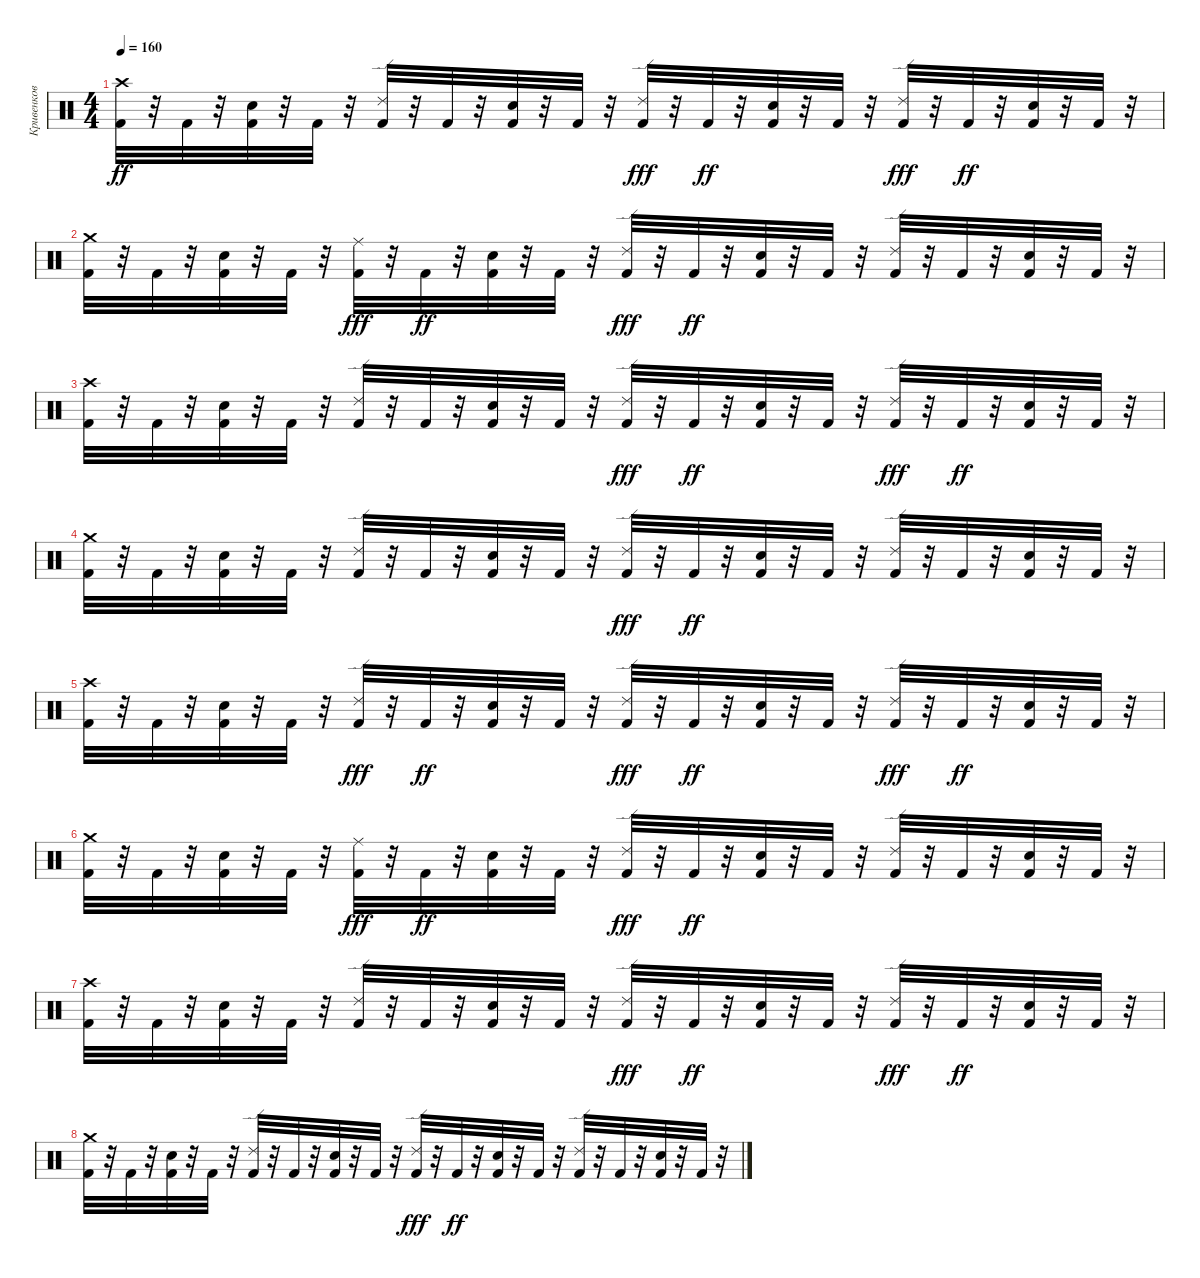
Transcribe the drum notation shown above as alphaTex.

\track ("Кривенков" "Кривенков") {instrument percussion}
\staff {score}
\articulation defaults
\ts (4 4)
\tempo 160
\clef neutral
\ks c
("Kick (hit) 2" "Crash high (hit)").32{dy ff} r.32 "Kick (hit) 2".32 r.32 ("Kick (hit) 2" "Electric Snare (hit)").32 r.32 "Kick (hit) 2".32 r.32 ("Ride (edge) 2" "Kick (hit) 2").32 r.32 "Kick (hit) 2".32 r.32 ("Electric Snare (hit)" "Kick (hit) 2").32 r.32 "Kick (hit) 2".32 r.32 ("Kick (hit) 2" "Ride (edge) 2").32{dy fff} r.32 "Kick (hit) 2".32{dy ff} r.32 ("Kick (hit) 2" "Electric Snare (hit)").32 r.32 "Kick (hit) 2".32 r.32 ("Kick (hit) 2" "Ride (edge) 2").32{dy fff} r.32 "Kick (hit) 2".32{dy ff} r.32 ("Electric Snare (hit)" "Kick (hit) 2").32 r.32 "Kick (hit) 2".32 r.32 |
("Crash medium (hit)" "Kick (hit) 2").32 r.32 "Kick (hit) 2".32 r.32 ("Kick (hit) 2" "Electric Snare (hit)").32 r.32 "Kick (hit) 2".32 r.32 ("Kick (hit) 2" "Ride (middle)").32{dy fff} r.32 "Kick (hit) 2".32{dy ff} r.32 ("Electric Snare (hit)" "Kick (hit) 2").32 r.32 "Kick (hit) 2".32 r.32 ("Kick (hit) 2" "Ride (edge) 2").32{dy fff} r.32 "Kick (hit) 2".32{dy ff} r.32 ("Electric Snare (hit)" "Kick (hit) 2").32 r.32 "Kick (hit) 2".32 r.32 ("Ride (edge) 2" "Kick (hit) 2").32 r.32 "Kick (hit) 2".32 r.32 ("Kick (hit) 2" "Electric Snare (hit)").32 r.32 "Kick (hit) 2".32 r.32 |
("Crash high (hit)" "Kick (hit) 2").32 r.32 "Kick (hit) 2".32 r.32 ("Electric Snare (hit)" "Kick (hit) 2").32 r.32 "Kick (hit) 2".32 r.32 ("Ride (edge) 2" "Kick (hit) 2").32 r.32 "Kick (hit) 2".32 r.32 ("Kick (hit) 2" "Electric Snare (hit)").32 r.32 "Kick (hit) 2".32 r.32 ("Kick (hit) 2" "Ride (edge) 2").32{dy fff} r.32 "Kick (hit) 2".32{dy ff} r.32 ("Kick (hit) 2" "Electric Snare (hit)").32 r.32 "Kick (hit) 2".32 r.32 ("Kick (hit) 2" "Ride (edge) 2").32{dy fff} r.32 "Kick (hit) 2".32{dy ff} r.32 ("Kick (hit) 2" "Electric Snare (hit)").32 r.32 "Kick (hit) 2".32 r.32 |
("Crash medium (hit)" "Kick (hit) 2").32 r.32 "Kick (hit) 2".32 r.32 ("Kick (hit) 2" "Electric Snare (hit)").32 r.32 "Kick (hit) 2".32 r.32 ("Ride (edge) 2" "Kick (hit) 2").32 r.32 "Kick (hit) 2".32 r.32 ("Electric Snare (hit)" "Kick (hit) 2").32 r.32 "Kick (hit) 2".32 r.32 ("Kick (hit) 2" "Ride (edge) 2").32{dy fff} r.32 "Kick (hit) 2".32{dy ff} r.32 ("Kick (hit) 2" "Electric Snare (hit)").32 r.32 "Kick (hit) 2".32 r.32 ("Ride (edge) 2" "Kick (hit) 2").32 r.32 "Kick (hit) 2".32 r.32 ("Kick (hit) 2" "Electric Snare (hit)").32 r.32 "Kick (hit) 2".32 r.32 |
("Kick (hit) 2" "Crash high (hit)").32 r.32 "Kick (hit) 2".32 r.32 ("Electric Snare (hit)" "Kick (hit) 2").32 r.32 "Kick (hit) 2".32 r.32 ("Kick (hit) 2" "Ride (edge) 2").32{dy fff} r.32 "Kick (hit) 2".32{dy ff} r.32 ("Electric Snare (hit)" "Kick (hit) 2").32 r.32 "Kick (hit) 2".32 r.32 ("Kick (hit) 2" "Ride (edge) 2").32{dy fff} r.32 "Kick (hit) 2".32{dy ff} r.32 ("Kick (hit) 2" "Electric Snare (hit)").32 r.32 "Kick (hit) 2".32 r.32 ("Kick (hit) 2" "Ride (edge) 2").32{dy fff} r.32 "Kick (hit) 2".32{dy ff} r.32 ("Electric Snare (hit)" "Kick (hit) 2").32 r.32 "Kick (hit) 2".32 r.32 |
("Crash medium (hit)" "Kick (hit) 2").32 r.32 "Kick (hit) 2".32 r.32 ("Kick (hit) 2" "Electric Snare (hit)").32 r.32 "Kick (hit) 2".32 r.32 ("Kick (hit) 2" "Ride (middle)").32{dy fff} r.32 "Kick (hit) 2".32{dy ff} r.32 ("Electric Snare (hit)" "Kick (hit) 2").32 r.32 "Kick (hit) 2".32 r.32 ("Kick (hit) 2" "Ride (edge) 2").32{dy fff} r.32 "Kick (hit) 2".32{dy ff} r.32 ("Electric Snare (hit)" "Kick (hit) 2").32 r.32 "Kick (hit) 2".32 r.32 ("Ride (edge) 2" "Kick (hit) 2").32 r.32 "Kick (hit) 2".32 r.32 ("Kick (hit) 2" "Electric Snare (hit)").32 r.32 "Kick (hit) 2".32 r.32 |
("Crash high (hit)" "Kick (hit) 2").32 r.32 "Kick (hit) 2".32 r.32 ("Electric Snare (hit)" "Kick (hit) 2").32 r.32 "Kick (hit) 2".32 r.32 ("Ride (edge) 2" "Kick (hit) 2").32 r.32 "Kick (hit) 2".32 r.32 ("Kick (hit) 2" "Electric Snare (hit)").32 r.32 "Kick (hit) 2".32 r.32 ("Kick (hit) 2" "Ride (edge) 2").32{dy fff} r.32 "Kick (hit) 2".32{dy ff} r.32 ("Kick (hit) 2" "Electric Snare (hit)").32 r.32 "Kick (hit) 2".32 r.32 ("Kick (hit) 2" "Ride (edge) 2").32{dy fff} r.32 "Kick (hit) 2".32{dy ff} r.32 ("Kick (hit) 2" "Electric Snare (hit)").32 r.32 "Kick (hit) 2".32 r.32 |
("Crash medium (hit)" "Kick (hit) 2").32 r.32 "Kick (hit) 2".32 r.32 ("Kick (hit) 2" "Electric Snare (hit)").32 r.32 "Kick (hit) 2".32 r.32 ("Ride (edge) 2" "Kick (hit) 2").32 r.32 "Kick (hit) 2".32 r.32 ("Electric Snare (hit)" "Kick (hit) 2").32 r.32 "Kick (hit) 2".32 r.32 ("Kick (hit) 2" "Ride (edge) 2").32{dy fff} r.32 "Kick (hit) 2".32{dy ff} r.32 ("Kick (hit) 2" "Electric Snare (hit)").32 r.32 "Kick (hit) 2".32 r.32 ("Ride (edge) 2" "Kick (hit) 2").32 r.32 "Kick (hit) 2".32 r.32 ("Kick (hit) 2" "Electric Snare (hit)").32 r.32 "Kick (hit) 2".32 r.32
